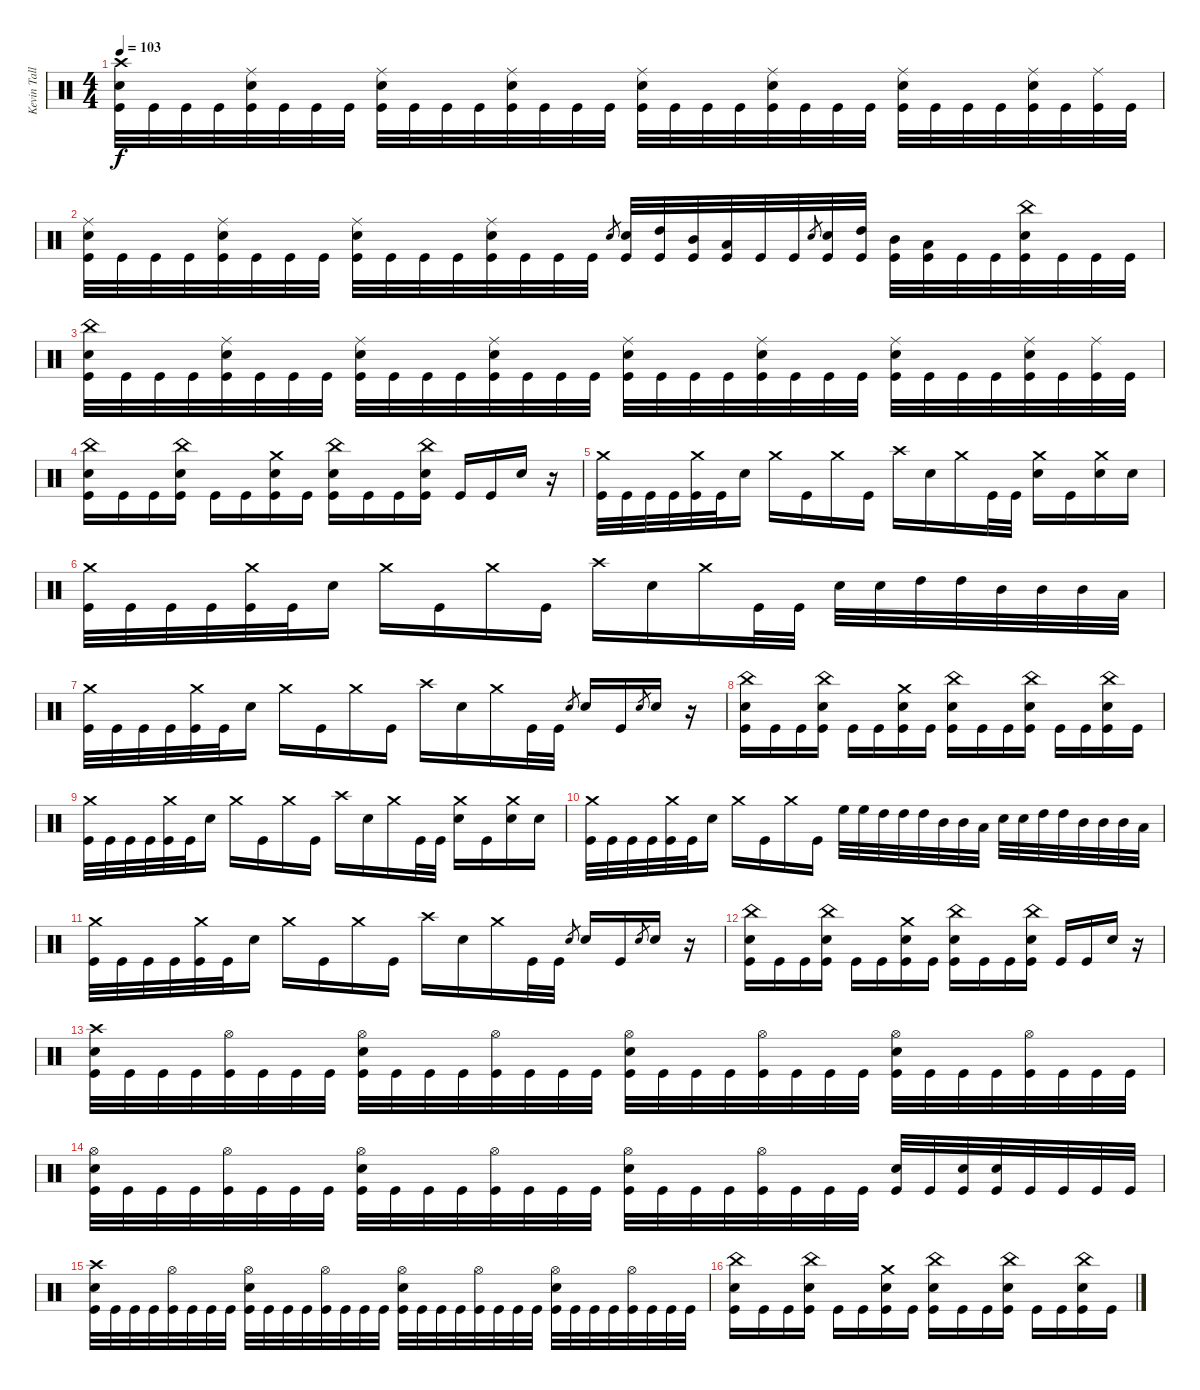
\track ("Kevin Talley" "Kevin Tall") {instrument percussion}
\staff {score}
\articulation defaults
\ts (4 4)
\tempo 103
\clef neutral
\ks c
("Crash high (hit)" "Electric Snare (hit)" "Kick (hit)").32{dy f} "Kick (hit)".32 "Kick (hit)".32 "Kick (hit)".32 ("Ride (middle)" "Electric Snare (hit)" "Kick (hit)").32 "Kick (hit)".32 "Kick (hit)".32 "Kick (hit)".32 ("Ride (middle)" "Electric Snare (hit)" "Kick (hit)").32 "Kick (hit)".32 "Kick (hit)".32 "Kick (hit)".32 ("Ride (middle)" "Electric Snare (hit)" "Kick (hit)").32 "Kick (hit)".32 "Kick (hit)".32 "Kick (hit)".32 ("Ride (middle)" "Electric Snare (hit)" "Kick (hit)").32 "Kick (hit)".32 "Kick (hit)".32 "Kick (hit)".32 ("Ride (middle)" "Electric Snare (hit)" "Kick (hit)").32 "Kick (hit)".32 "Kick (hit)".32 "Kick (hit)".32 ("Ride (middle)" "Electric Snare (hit)" "Kick (hit)").32 "Kick (hit)".32 "Kick (hit)".32 "Kick (hit)".32 ("Ride (middle)" "Electric Snare (hit)" "Kick (hit)").32 "Kick (hit)".32 ("Ride (middle)" "Kick (hit)").32 "Kick (hit)".32 |
("Ride (middle)" "Electric Snare (hit)" "Kick (hit)").32 "Kick (hit)".32 "Kick (hit)".32 "Kick (hit)".32 ("Ride (middle)" "Electric Snare (hit)" "Kick (hit)").32 "Kick (hit)".32 "Kick (hit)".32 "Kick (hit)".32 ("Ride (middle)" "Electric Snare (hit)" "Kick (hit)").32 "Kick (hit)".32 "Kick (hit)".32 "Kick (hit)".32 ("Ride (middle)" "Electric Snare (hit)" "Kick (hit)").32 "Kick (hit)".32 "Kick (hit)".32 "Kick (hit)".32 "Electric Snare (hit)".8{gr} ("Electric Snare (hit)" "Kick (hit)").32 ("High Tom (hit)" "Kick (hit)").32 ("Mid Tom (hit)" "Kick (hit)").32 ("Low Tom (hit)" "Kick (hit)").32 "Kick (hit)".32 "Kick (hit)".32 "Electric Snare (hit)".8{gr} ("Electric Snare (hit)" "Kick (hit)").32 ("High Tom (hit)" "Kick (hit)").32 ("Mid Tom (hit)" "Kick (hit)").32 ("Low Tom (hit)" "Kick (hit)").32 "Kick (hit)".32 "Kick (hit)".32 ("China (hit)" "Electric Snare (hit)" "Kick (hit)").32 "Kick (hit)".32 "Kick (hit)".32 "Kick (hit)".32 |
("China (hit)" "Electric Snare (hit)" "Kick (hit)").32 "Kick (hit)".32 "Kick (hit)".32 "Kick (hit)".32 ("Ride (middle)" "Electric Snare (hit)" "Kick (hit)").32 "Kick (hit)".32 "Kick (hit)".32 "Kick (hit)".32 ("Ride (middle)" "Electric Snare (hit)" "Kick (hit)").32 "Kick (hit)".32 "Kick (hit)".32 "Kick (hit)".32 ("Ride (middle)" "Electric Snare (hit)" "Kick (hit)").32 "Kick (hit)".32 "Kick (hit)".32 "Kick (hit)".32 ("Ride (middle)" "Electric Snare (hit)" "Kick (hit)").32 "Kick (hit)".32 "Kick (hit)".32 "Kick (hit)".32 ("Ride (middle)" "Electric Snare (hit)" "Kick (hit)").32 "Kick (hit)".32 "Kick (hit)".32 "Kick (hit)".32 ("Ride (middle)" "Electric Snare (hit)" "Kick (hit)").32 "Kick (hit)".32 "Kick (hit)".32 "Kick (hit)".32 ("Ride (middle)" "Electric Snare (hit)" "Kick (hit)").32 "Kick (hit)".32 ("Ride (middle)" "Kick (hit)").32 "Kick (hit)".32 |
("China (hit)" "Electric Snare (hit)" "Kick (hit)").16 "Kick (hit)".16 "Kick (hit)".16 ("China (hit)" "Electric Snare (hit)" "Kick (hit)").16 "Kick (hit)".16 "Kick (hit)".16 ("Crash medium (hit)" "Electric Snare (hit)" "Kick (hit)").16 "Kick (hit)".16 ("China (hit)" "Electric Snare (hit)" "Kick (hit)").16 "Kick (hit)".16 "Kick (hit)".16 ("China (hit)" "Electric Snare (hit)" "Kick (hit)").16 "Kick (hit)".16 "Kick (hit)".16 "Electric Snare (hit)".16 r.16 |
("Crash medium (hit)" "Kick (hit)").32 "Kick (hit)".32 "Kick (hit)".32 "Kick (hit)".32 ("Crash medium (hit)" "Kick (hit)").32 "Kick (hit)".32 "Electric Snare (hit)".16 "Crash medium (hit)".16 "Kick (hit)".16 "Crash medium (hit)".16 "Kick (hit)".16 "Crash high (hit)".16 "Electric Snare (hit)".16 "Crash medium (hit)".16 "Kick (hit)".32 "Kick (hit)".32 ("Crash medium (hit)" "Electric Snare (hit)").16 "Kick (hit)".16 ("Crash medium (hit)" "Electric Snare (hit)").16 "Electric Snare (hit)".16 |
("Crash medium (hit)" "Kick (hit)").32 "Kick (hit)".32 "Kick (hit)".32 "Kick (hit)".32 ("Crash medium (hit)" "Kick (hit)").32 "Kick (hit)".32 "Electric Snare (hit)".16 "Crash medium (hit)".16 "Kick (hit)".16 "Crash medium (hit)".16 "Kick (hit)".16 "Crash high (hit)".16 "Electric Snare (hit)".16 "Crash medium (hit)".16 "Kick (hit)".32 "Kick (hit)".32 "Electric Snare (hit)".32 "Electric Snare (hit)".32 "High Tom (hit)".32 "High Tom (hit)".32 "Mid Tom (hit)".32 "Mid Tom (hit)".32 "Mid Tom (hit)".32 "Low Tom (hit)".32 |
("Crash medium (hit)" "Kick (hit)").32 "Kick (hit)".32 "Kick (hit)".32 "Kick (hit)".32 ("Crash medium (hit)" "Kick (hit)").32 "Kick (hit)".32 "Electric Snare (hit)".16 "Crash medium (hit)".16 "Kick (hit)".16 "Crash medium (hit)".16 "Kick (hit)".16 "Crash high (hit)".16 "Electric Snare (hit)".16 "Crash medium (hit)".16 "Kick (hit)".32 "Kick (hit)".32 "Electric Snare (hit)".8{gr} "Electric Snare (hit)".16 "Kick (hit)".16 "Electric Snare (hit)".8{gr} "Electric Snare (hit)".16 r.16 |
("China (hit)" "Electric Snare (hit)" "Kick (hit)").16 "Kick (hit)".16 "Kick (hit)".16 ("China (hit)" "Electric Snare (hit)" "Kick (hit)").16 "Kick (hit)".16 "Kick (hit)".16 ("Crash medium (hit)" "Electric Snare (hit)" "Kick (hit)").16 "Kick (hit)".16 ("China (hit)" "Electric Snare (hit)" "Kick (hit)").16 "Kick (hit)".16 "Kick (hit)".16 ("China (hit)" "Electric Snare (hit)" "Kick (hit)").16 "Kick (hit)".16 "Kick (hit)".16 ("China (hit)" "Electric Snare (hit)" "Kick (hit)").16 "Kick (hit)".16 |
("Crash medium (hit)" "Kick (hit)").32 "Kick (hit)".32 "Kick (hit)".32 "Kick (hit)".32 ("Crash medium (hit)" "Kick (hit)").32 "Kick (hit)".32 "Electric Snare (hit)".16 "Crash medium (hit)".16 "Kick (hit)".16 "Crash medium (hit)".16 "Kick (hit)".16 "Crash high (hit)".16 "Electric Snare (hit)".16 "Crash medium (hit)".16 "Kick (hit)".32 "Kick (hit)".32 ("Crash medium (hit)" "Electric Snare (hit)").16 "Kick (hit)".16 ("Crash medium (hit)" "Electric Snare (hit)").16 "Electric Snare (hit)".16 |
("Crash medium (hit)" "Kick (hit)").32 "Kick (hit)".32 "Kick (hit)".32 "Kick (hit)".32 ("Crash medium (hit)" "Kick (hit)").32 "Kick (hit)".32 "Electric Snare (hit)".16 "Crash medium (hit)".16 "Kick (hit)".16 "Crash medium (hit)".16 "Kick (hit)".16 "High Floor Tom (hit)".32 "High Floor Tom (hit)".32 "High Tom (hit)".32 "High Tom (hit)".32 "High Tom (hit)".32 "Mid Tom (hit)".32 "Mid Tom (hit)".32 "Low Tom (hit)".32 "Electric Snare (hit)".32 "Electric Snare (hit)".32 "High Tom (hit)".32 "High Tom (hit)".32 "Mid Tom (hit)".32 "Mid Tom (hit)".32 "Mid Tom (hit)".32 "Low Tom (hit)".32 |
("Crash medium (hit)" "Kick (hit)").32 "Kick (hit)".32 "Kick (hit)".32 "Kick (hit)".32 ("Crash medium (hit)" "Kick (hit)").32 "Kick (hit)".32 "Electric Snare (hit)".16 "Crash medium (hit)".16 "Kick (hit)".16 "Crash medium (hit)".16 "Kick (hit)".16 "Crash high (hit)".16 "Electric Snare (hit)".16 "Crash medium (hit)".16 "Kick (hit)".32 "Kick (hit)".32 "Electric Snare (hit)".8{gr} "Electric Snare (hit)".16 "Kick (hit)".16 "Electric Snare (hit)".8{gr} "Electric Snare (hit)".16 r.16 |
("China (hit)" "Electric Snare (hit)" "Kick (hit)").16 "Kick (hit)".16 "Kick (hit)".16 ("China (hit)" "Electric Snare (hit)" "Kick (hit)").16 "Kick (hit)".16 "Kick (hit)".16 ("Crash medium (hit)" "Electric Snare (hit)" "Kick (hit)").16 "Kick (hit)".16 ("China (hit)" "Electric Snare (hit)" "Kick (hit)").16 "Kick (hit)".16 "Kick (hit)".16 ("China (hit)" "Electric Snare (hit)" "Kick (hit)").16 "Kick (hit)".16 "Kick (hit)".16 "Electric Snare (hit)".16 r.16 |
("Crash high (hit)" "Electric Snare (hit)" "Kick (hit)").32 "Kick (hit)".32 "Kick (hit)".32 "Kick (hit)".32 ("Hi-Hat (open)" "Kick (hit)").32 "Kick (hit)".32 "Kick (hit)".32 "Kick (hit)".32 ("Hi-Hat (open)" "Electric Snare (hit)" "Kick (hit)").32 "Kick (hit)".32 "Kick (hit)".32 "Kick (hit)".32 ("Hi-Hat (open)" "Kick (hit)").32 "Kick (hit)".32 "Kick (hit)".32 "Kick (hit)".32 ("Hi-Hat (open)" "Electric Snare (hit)" "Kick (hit)").32 "Kick (hit)".32 "Kick (hit)".32 "Kick (hit)".32 ("Hi-Hat (open)" "Kick (hit)").32 "Kick (hit)".32 "Kick (hit)".32 "Kick (hit)".32 ("Hi-Hat (open)" "Electric Snare (hit)" "Kick (hit)").32 "Kick (hit)".32 "Kick (hit)".32 "Kick (hit)".32 ("Hi-Hat (open)" "Kick (hit)").32 "Kick (hit)".32 "Kick (hit)".32 "Kick (hit)".32 |
("Hi-Hat (open)" "Electric Snare (hit)" "Kick (hit)").32 "Kick (hit)".32 "Kick (hit)".32 "Kick (hit)".32 ("Hi-Hat (open)" "Kick (hit)").32 "Kick (hit)".32 "Kick (hit)".32 "Kick (hit)".32 ("Hi-Hat (open)" "Electric Snare (hit)" "Kick (hit)").32 "Kick (hit)".32 "Kick (hit)".32 "Kick (hit)".32 ("Hi-Hat (open)" "Kick (hit)").32 "Kick (hit)".32 "Kick (hit)".32 "Kick (hit)".32 ("Hi-Hat (open)" "Electric Snare (hit)" "Kick (hit)").32 "Kick (hit)".32 "Kick (hit)".32 "Kick (hit)".32 ("Hi-Hat (open)" "Kick (hit)").32 "Kick (hit)".32 "Kick (hit)".32 "Kick (hit)".32 ("Electric Snare (hit)" "Kick (hit)").32 "Kick (hit)".32 ("Electric Snare (hit)" "Kick (hit)").32 ("Electric Snare (hit)" "Kick (hit)").32 "Kick (hit)".32 "Kick (hit)".32 "Kick (hit)".32 "Kick (hit)".32 |
("Crash high (hit)" "Electric Snare (hit)" "Kick (hit)").32 "Kick (hit)".32 "Kick (hit)".32 "Kick (hit)".32 ("Hi-Hat (open)" "Kick (hit)").32 "Kick (hit)".32 "Kick (hit)".32 "Kick (hit)".32 ("Hi-Hat (open)" "Electric Snare (hit)" "Kick (hit)").32 "Kick (hit)".32 "Kick (hit)".32 "Kick (hit)".32 ("Hi-Hat (open)" "Kick (hit)").32 "Kick (hit)".32 "Kick (hit)".32 "Kick (hit)".32 ("Hi-Hat (open)" "Electric Snare (hit)" "Kick (hit)").32 "Kick (hit)".32 "Kick (hit)".32 "Kick (hit)".32 ("Hi-Hat (open)" "Kick (hit)").32 "Kick (hit)".32 "Kick (hit)".32 "Kick (hit)".32 ("Hi-Hat (open)" "Electric Snare (hit)" "Kick (hit)").32 "Kick (hit)".32 "Kick (hit)".32 "Kick (hit)".32 ("Hi-Hat (open)" "Kick (hit)").32 "Kick (hit)".32 "Kick (hit)".32 "Kick (hit)".32 |
("China (hit)" "Electric Snare (hit)" "Kick (hit)").16 "Kick (hit)".16 "Kick (hit)".16 ("China (hit)" "Electric Snare (hit)" "Kick (hit)").16 "Kick (hit)".16 "Kick (hit)".16 ("Crash medium (hit)" "Electric Snare (hit)" "Kick (hit)").16 "Kick (hit)".16 ("China (hit)" "Electric Snare (hit)" "Kick (hit)").16 "Kick (hit)".16 "Kick (hit)".16 ("China (hit)" "Electric Snare (hit)" "Kick (hit)").16 "Kick (hit)".16 "Kick (hit)".16 ("China (hit)" "Electric Snare (hit)" "Kick (hit)").16 "Kick (hit)".16
